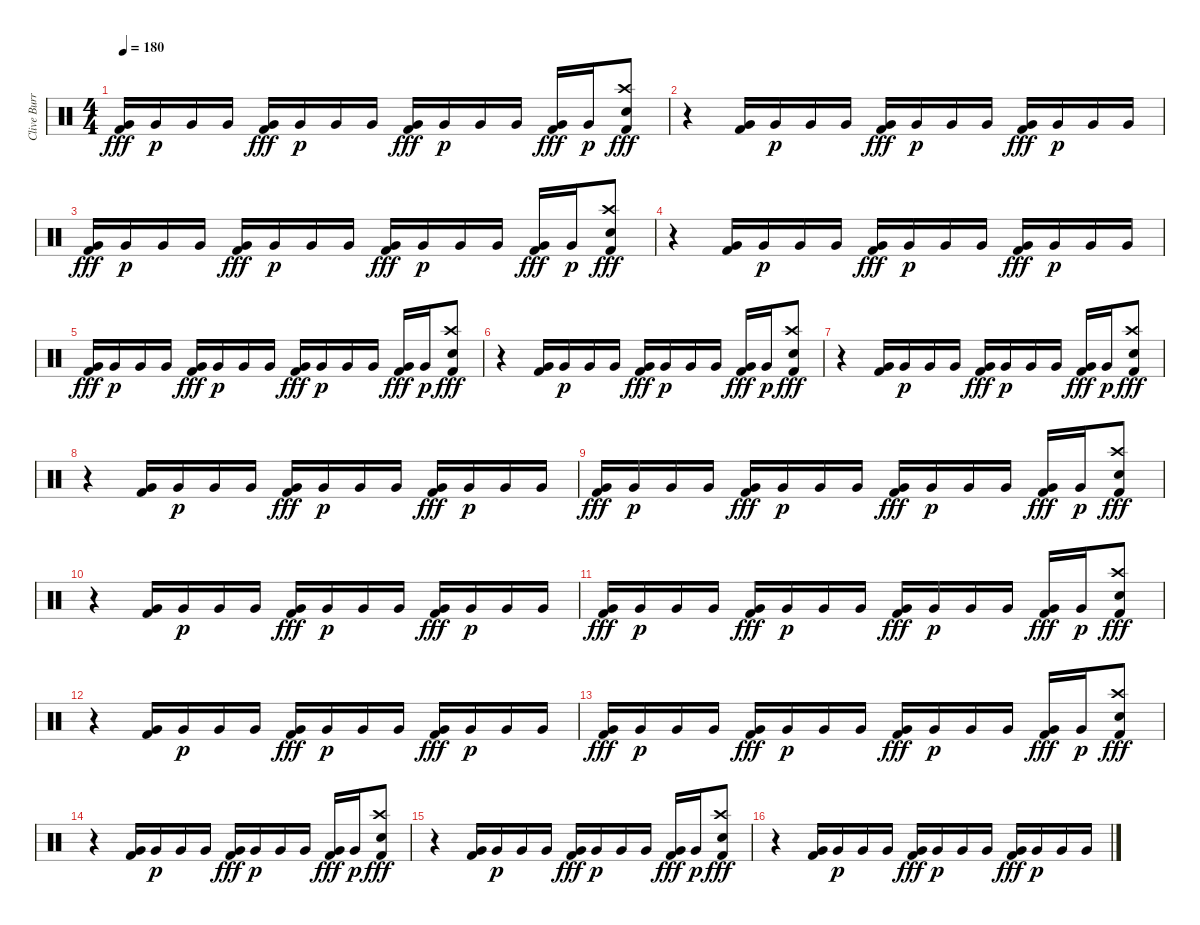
\track ("Clive Burr - Drums" "Clive Burr") {instrument percussion}
\staff {score}
\articulation defaults
\ts (4 4)
\tempo 180
\clef neutral
\ks c
("Very Low Tom (hit)" "Kick (hit) 2").16{dy fff} "Very Low Tom (hit)".16{dy p} "Very Low Tom (hit)".16 "Very Low Tom (hit)".16 ("Very Low Tom (hit)" "Kick (hit) 2").16{dy fff} "Very Low Tom (hit)".16{dy p} "Very Low Tom (hit)".16 "Very Low Tom (hit)".16 ("Very Low Tom (hit)" "Kick (hit) 2").16{dy fff} "Very Low Tom (hit)".16{dy p} "Very Low Tom (hit)".16 "Very Low Tom (hit)".16 ("Very Low Tom (hit)" "Kick (hit) 2").16{dy fff} "Very Low Tom (hit)".16{dy p} ("Crash high (hit)" "Snare (hit) 2" "Kick (hit) 2").8{dy fff} |
r.4 ("Very Low Tom (hit)" "Kick (hit) 2").16 "Very Low Tom (hit)".16{dy p} "Very Low Tom (hit)".16 "Very Low Tom (hit)".16 ("Very Low Tom (hit)" "Kick (hit) 2").16{dy fff} "Very Low Tom (hit)".16{dy p} "Very Low Tom (hit)".16 "Very Low Tom (hit)".16 ("Very Low Tom (hit)" "Kick (hit) 2").16{dy fff} "Very Low Tom (hit)".16{dy p} "Very Low Tom (hit)".16 "Very Low Tom (hit)".16 |
("Very Low Tom (hit)" "Kick (hit) 2").16{dy fff} "Very Low Tom (hit)".16{dy p} "Very Low Tom (hit)".16 "Very Low Tom (hit)".16 ("Very Low Tom (hit)" "Kick (hit) 2").16{dy fff} "Very Low Tom (hit)".16{dy p} "Very Low Tom (hit)".16 "Very Low Tom (hit)".16 ("Very Low Tom (hit)" "Kick (hit) 2").16{dy fff} "Very Low Tom (hit)".16{dy p} "Very Low Tom (hit)".16 "Very Low Tom (hit)".16 ("Very Low Tom (hit)" "Kick (hit) 2").16{dy fff} "Very Low Tom (hit)".16{dy p} ("Crash high (hit)" "Snare (hit) 2" "Kick (hit) 2").8{dy fff} |
r.4 ("Very Low Tom (hit)" "Kick (hit) 2").16 "Very Low Tom (hit)".16{dy p} "Very Low Tom (hit)".16 "Very Low Tom (hit)".16 ("Very Low Tom (hit)" "Kick (hit) 2").16{dy fff} "Very Low Tom (hit)".16{dy p} "Very Low Tom (hit)".16 "Very Low Tom (hit)".16 ("Very Low Tom (hit)" "Kick (hit) 2").16{dy fff} "Very Low Tom (hit)".16{dy p} "Very Low Tom (hit)".16 "Very Low Tom (hit)".16 |
("Very Low Tom (hit)" "Kick (hit) 2").16{dy fff} "Very Low Tom (hit)".16{dy p} "Very Low Tom (hit)".16 "Very Low Tom (hit)".16 ("Very Low Tom (hit)" "Kick (hit) 2").16{dy fff} "Very Low Tom (hit)".16{dy p} "Very Low Tom (hit)".16 "Very Low Tom (hit)".16 ("Very Low Tom (hit)" "Kick (hit) 2").16{dy fff} "Very Low Tom (hit)".16{dy p} "Very Low Tom (hit)".16 "Very Low Tom (hit)".16 ("Very Low Tom (hit)" "Kick (hit) 2").16{dy fff} "Very Low Tom (hit)".16{dy p} ("Crash high (hit)" "Snare (hit) 2" "Kick (hit) 2").8{dy fff} |
r.4 ("Very Low Tom (hit)" "Kick (hit) 2").16 "Very Low Tom (hit)".16{dy p} "Very Low Tom (hit)".16 "Very Low Tom (hit)".16 ("Very Low Tom (hit)" "Kick (hit) 2").16{dy fff} "Very Low Tom (hit)".16{dy p} "Very Low Tom (hit)".16 "Very Low Tom (hit)".16 ("Very Low Tom (hit)" "Kick (hit) 2").16{dy fff} "Very Low Tom (hit)".16{dy p} ("Crash high (hit)" "Snare (hit) 2" "Kick (hit) 2").8{dy fff} |
r.4 ("Very Low Tom (hit)" "Kick (hit) 2").16 "Very Low Tom (hit)".16{dy p} "Very Low Tom (hit)".16 "Very Low Tom (hit)".16 ("Very Low Tom (hit)" "Kick (hit) 2").16{dy fff} "Very Low Tom (hit)".16{dy p} "Very Low Tom (hit)".16 "Very Low Tom (hit)".16 ("Very Low Tom (hit)" "Kick (hit) 2").16{dy fff} "Very Low Tom (hit)".16{dy p} ("Crash high (hit)" "Snare (hit) 2" "Kick (hit) 2").8{dy fff} |
r.4 ("Very Low Tom (hit)" "Kick (hit) 2").16 "Very Low Tom (hit)".16{dy p} "Very Low Tom (hit)".16 "Very Low Tom (hit)".16 ("Very Low Tom (hit)" "Kick (hit) 2").16{dy fff} "Very Low Tom (hit)".16{dy p} "Very Low Tom (hit)".16 "Very Low Tom (hit)".16 ("Very Low Tom (hit)" "Kick (hit) 2").16{dy fff} "Very Low Tom (hit)".16{dy p} "Very Low Tom (hit)".16 "Very Low Tom (hit)".16 |
("Very Low Tom (hit)" "Kick (hit) 2").16{dy fff} "Very Low Tom (hit)".16{dy p} "Very Low Tom (hit)".16 "Very Low Tom (hit)".16 ("Very Low Tom (hit)" "Kick (hit) 2").16{dy fff} "Very Low Tom (hit)".16{dy p} "Very Low Tom (hit)".16 "Very Low Tom (hit)".16 ("Very Low Tom (hit)" "Kick (hit) 2").16{dy fff} "Very Low Tom (hit)".16{dy p} "Very Low Tom (hit)".16 "Very Low Tom (hit)".16 ("Very Low Tom (hit)" "Kick (hit) 2").16{dy fff} "Very Low Tom (hit)".16{dy p} ("Crash high (hit)" "Snare (hit) 2" "Kick (hit) 2").8{dy fff} |
r.4 ("Very Low Tom (hit)" "Kick (hit) 2").16 "Very Low Tom (hit)".16{dy p} "Very Low Tom (hit)".16 "Very Low Tom (hit)".16 ("Very Low Tom (hit)" "Kick (hit) 2").16{dy fff} "Very Low Tom (hit)".16{dy p} "Very Low Tom (hit)".16 "Very Low Tom (hit)".16 ("Very Low Tom (hit)" "Kick (hit) 2").16{dy fff} "Very Low Tom (hit)".16{dy p} "Very Low Tom (hit)".16 "Very Low Tom (hit)".16 |
("Very Low Tom (hit)" "Kick (hit) 2").16{dy fff} "Very Low Tom (hit)".16{dy p} "Very Low Tom (hit)".16 "Very Low Tom (hit)".16 ("Very Low Tom (hit)" "Kick (hit) 2").16{dy fff} "Very Low Tom (hit)".16{dy p} "Very Low Tom (hit)".16 "Very Low Tom (hit)".16 ("Very Low Tom (hit)" "Kick (hit) 2").16{dy fff} "Very Low Tom (hit)".16{dy p} "Very Low Tom (hit)".16 "Very Low Tom (hit)".16 ("Very Low Tom (hit)" "Kick (hit) 2").16{dy fff} "Very Low Tom (hit)".16{dy p} ("Crash high (hit)" "Snare (hit) 2" "Kick (hit) 2").8{dy fff} |
r.4 ("Very Low Tom (hit)" "Kick (hit) 2").16 "Very Low Tom (hit)".16{dy p} "Very Low Tom (hit)".16 "Very Low Tom (hit)".16 ("Very Low Tom (hit)" "Kick (hit) 2").16{dy fff} "Very Low Tom (hit)".16{dy p} "Very Low Tom (hit)".16 "Very Low Tom (hit)".16 ("Very Low Tom (hit)" "Kick (hit) 2").16{dy fff} "Very Low Tom (hit)".16{dy p} "Very Low Tom (hit)".16 "Very Low Tom (hit)".16 |
("Very Low Tom (hit)" "Kick (hit) 2").16{dy fff} "Very Low Tom (hit)".16{dy p} "Very Low Tom (hit)".16 "Very Low Tom (hit)".16 ("Very Low Tom (hit)" "Kick (hit) 2").16{dy fff} "Very Low Tom (hit)".16{dy p} "Very Low Tom (hit)".16 "Very Low Tom (hit)".16 ("Very Low Tom (hit)" "Kick (hit) 2").16{dy fff} "Very Low Tom (hit)".16{dy p} "Very Low Tom (hit)".16 "Very Low Tom (hit)".16 ("Very Low Tom (hit)" "Kick (hit) 2").16{dy fff} "Very Low Tom (hit)".16{dy p} ("Crash high (hit)" "Snare (hit) 2" "Kick (hit) 2").8{dy fff} |
r.4 ("Very Low Tom (hit)" "Kick (hit) 2").16 "Very Low Tom (hit)".16{dy p} "Very Low Tom (hit)".16 "Very Low Tom (hit)".16 ("Very Low Tom (hit)" "Kick (hit) 2").16{dy fff} "Very Low Tom (hit)".16{dy p} "Very Low Tom (hit)".16 "Very Low Tom (hit)".16 ("Very Low Tom (hit)" "Kick (hit) 2").16{dy fff} "Very Low Tom (hit)".16{dy p} ("Crash high (hit)" "Snare (hit) 2" "Kick (hit) 2").8{dy fff} |
r.4 ("Very Low Tom (hit)" "Kick (hit) 2").16 "Very Low Tom (hit)".16{dy p} "Very Low Tom (hit)".16 "Very Low Tom (hit)".16 ("Very Low Tom (hit)" "Kick (hit) 2").16{dy fff} "Very Low Tom (hit)".16{dy p} "Very Low Tom (hit)".16 "Very Low Tom (hit)".16 ("Very Low Tom (hit)" "Kick (hit) 2").16{dy fff} "Very Low Tom (hit)".16{dy p} ("Crash high (hit)" "Snare (hit) 2" "Kick (hit) 2").8{dy fff} |
r.4 ("Very Low Tom (hit)" "Kick (hit) 2").16 "Very Low Tom (hit)".16{dy p} "Very Low Tom (hit)".16 "Very Low Tom (hit)".16 ("Very Low Tom (hit)" "Kick (hit) 2").16{dy fff} "Very Low Tom (hit)".16{dy p} "Very Low Tom (hit)".16 "Very Low Tom (hit)".16 ("Very Low Tom (hit)" "Kick (hit) 2").16{dy fff} "Very Low Tom (hit)".16{dy p} "Very Low Tom (hit)".16 "Very Low Tom (hit)".16
